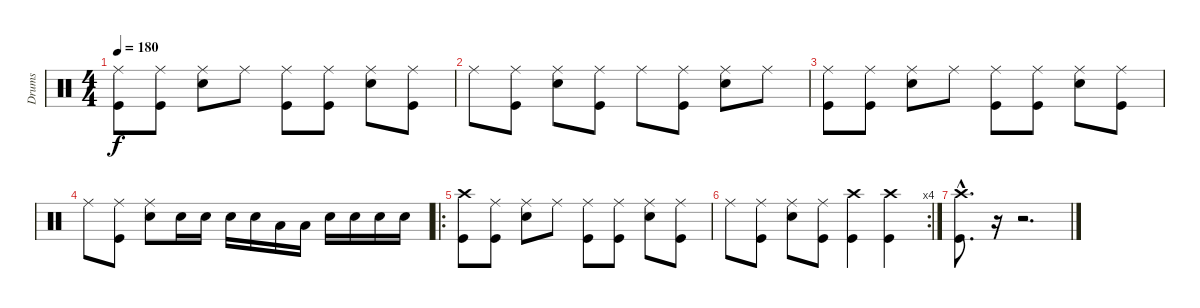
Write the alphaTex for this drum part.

\track ("Drums" "Drums") {instrument percussion}
\staff {score}
\articulation defaults
\ts (4 4)
\tempo 180
\clef neutral
\ks c
("Ride (middle)" "Kick (hit)").8{dy f} ("Ride (middle)" "Kick (hit)").8 ("Ride (middle)" "Electric Snare (hit)").8 "Ride (middle)".8 ("Ride (middle)" "Kick (hit)").8 ("Ride (middle)" "Kick (hit)").8 ("Ride (middle)" "Electric Snare (hit)").8 ("Ride (middle)" "Kick (hit)").8 |
"Ride (middle)".8 ("Ride (middle)" "Kick (hit)").8 ("Ride (middle)" "Electric Snare (hit)").8 ("Ride (middle)" "Kick (hit)").8 "Ride (middle)".8 ("Ride (middle)" "Kick (hit)").8 ("Ride (middle)" "Electric Snare (hit)").8 "Ride (middle)".8 |
("Ride (middle)" "Kick (hit)").8 ("Ride (middle)" "Kick (hit)").8 ("Ride (middle)" "Electric Snare (hit)").8 "Ride (middle)".8 ("Ride (middle)" "Kick (hit)").8 ("Ride (middle)" "Kick (hit)").8 ("Ride (middle)" "Electric Snare (hit)").8 ("Ride (middle)" "Kick (hit)").8 |
"Ride (middle)".8 ("Ride (middle)" "Kick (hit)").8 ("Ride (middle)" "Electric Snare (hit)").8 "Electric Snare (hit)".16 "Electric Snare (hit)".16 "Electric Snare (hit)".16 "Electric Snare (hit)".16 "Low Tom (hit)".16 "Low Tom (hit)".16 "Electric Snare (hit)".16 "Electric Snare (hit)".16 "Electric Snare (hit)".16 "Electric Snare (hit)".16 |
\ro
("Crash high (hit)" "Kick (hit)").8 ("Ride (middle)" "Kick (hit)").8 ("Ride (middle)" "Electric Snare (hit)").8 "Ride (middle)".8 ("Ride (middle)" "Kick (hit)").8 ("Ride (middle)" "Kick (hit)").8 ("Ride (middle)" "Electric Snare (hit)").8 ("Ride (middle)" "Kick (hit)").8 |
\rc 4 "Ride (middle)".8
("Ride (middle)" "Kick (hit)").8 ("Ride (middle)" "Electric Snare (hit)").8 ("Ride (middle)" "Kick (hit)").8 ("Crash high (hit)" "Kick (hit)").4 ("Crash high (hit)" "Kick (hit)").4 |
("Crash high (hit)"{hac} "Kick (hit)"{hac}).8{d} r.16{volume 0} r.2{d}
